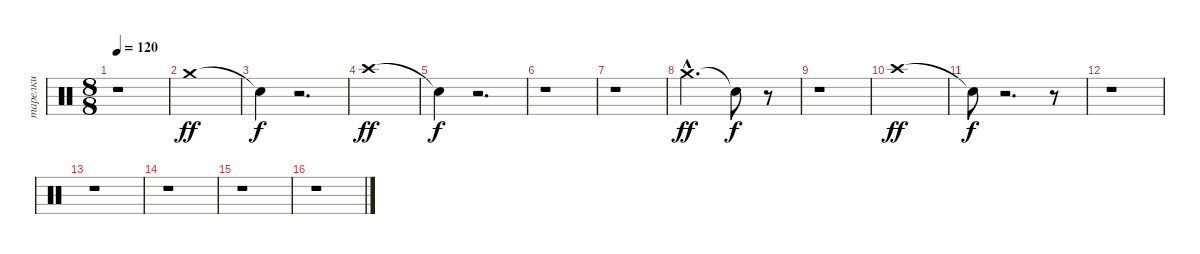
\track ("тарелки" "тарелки") {instrument percussion}
\staff {score}
\articulation defaults
\ts (8 8)
\tempo 120
\clef neutral
\ks c
r.1{dy f} |
"Crash medium (hit)".1{dy ff} |
"Snare (hit)"{t}.4{dy f} r.2{d} |
"Crash high (hit)".1{dy ff} |
"Snare (hit)"{t}.4{dy f} r.2{d} |
r.1 |
r.1 |
"Crash medium (hit)"{hac}.2{d dy ff} "Snare (hit)"{t}.8{dy f} r.8 |
r.1 |
"Crash high (hit)".1{dy ff} |
"Snare (hit)"{t}.8{dy f} r.2{d} r.8 |
r.1 |
r.1 |
r.1 |
r.1 |
r.1
